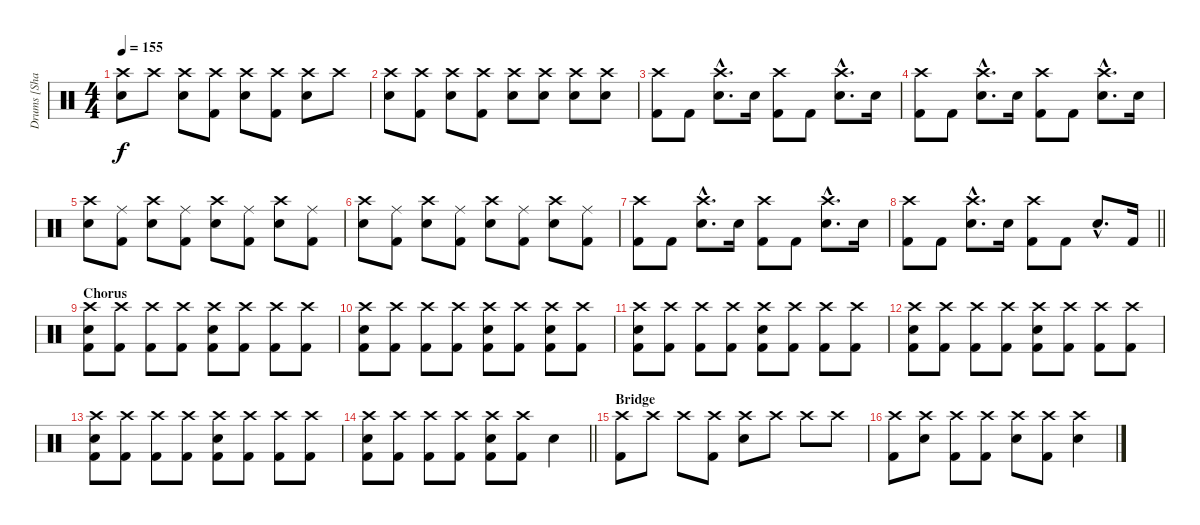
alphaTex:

\track ("Drums [Shannon Larkin]" "Drums [Sha") {instrument percussion}
\staff {score}
\articulation defaults
\ts (4 4)
\tempo 155
\clef neutral
\ks c
("Crash high (hit)" "Electric Snare (hit)").8{dy f} "Crash high (hit)".8 ("Crash high (hit)" "Electric Snare (hit)").8 ("Crash high (hit)" "Kick (hit) 2").8 ("Crash high (hit)" "Electric Snare (hit)").8 ("Crash high (hit)" "Kick (hit) 2").8 ("Crash high (hit)" "Electric Snare (hit)").8 "Crash high (hit)".8 |
("Crash high (hit)" "Electric Snare (hit)").8 ("Crash high (hit)" "Kick (hit) 2").8 ("Crash high (hit)" "Electric Snare (hit)").8 ("Crash high (hit)" "Kick (hit) 2").8 ("Crash high (hit)" "Electric Snare (hit)").8 ("Crash high (hit)" "Electric Snare (hit)").8 ("Crash high (hit)" "Electric Snare (hit)").8 ("Crash high (hit)" "Electric Snare (hit)").8 |
("Crash high (hit)" "Kick (hit) 2").8 "Kick (hit) 2".8 ("Crash high (hit)"{hac} "Electric Snare (hit)"{hac}).8{d} "Electric Snare (hit)".16 ("Crash high (hit)" "Kick (hit) 2").8 "Kick (hit) 2".8 ("Crash high (hit)"{hac} "Electric Snare (hit)"{hac}).8{d} "Electric Snare (hit)".16 |
("Crash high (hit)" "Kick (hit) 2").8 "Kick (hit) 2".8 ("Crash high (hit)"{hac} "Electric Snare (hit)"{hac}).8{d} "Electric Snare (hit)".16 ("Crash high (hit)" "Kick (hit) 2").8 "Kick (hit) 2".8 ("Crash high (hit)"{hac} "Electric Snare (hit)"{hac}).8{d} "Electric Snare (hit)".16 |
("Crash high (hit)" "Electric Snare (hit)").8 ("Ride (middle)" "Kick (hit) 2").8 ("Crash high (hit)" "Electric Snare (hit)").8 ("Ride (middle)" "Kick (hit) 2").8 ("Crash high (hit)" "Electric Snare (hit)").8 ("Ride (middle)" "Kick (hit) 2").8 ("Crash high (hit)" "Electric Snare (hit)").8 ("Ride (middle)" "Kick (hit) 2").8 |
("Crash high (hit)" "Electric Snare (hit)").8 ("Ride (middle)" "Kick (hit) 2").8 ("Crash high (hit)" "Electric Snare (hit)").8 ("Ride (middle)" "Kick (hit) 2").8 ("Crash high (hit)" "Electric Snare (hit)").8 ("Ride (middle)" "Kick (hit) 2").8 ("Crash high (hit)" "Electric Snare (hit)").8 ("Ride (middle)" "Kick (hit) 2").8 |
("Crash high (hit)" "Kick (hit) 2").8 "Kick (hit) 2".8 ("Crash high (hit)"{hac} "Electric Snare (hit)"{hac}).8{d} "Electric Snare (hit)".16 ("Crash high (hit)" "Kick (hit) 2").8 "Kick (hit) 2".8 ("Crash high (hit)"{hac} "Electric Snare (hit)"{hac}).8{d} "Electric Snare (hit)".16 |
\barLineRight lightlight
("Crash high (hit)" "Kick (hit) 2").8 "Kick (hit) 2".8 ("Crash high (hit)"{hac} "Electric Snare (hit)"{hac}).8{d} "Electric Snare (hit)".16 ("Crash high (hit)" "Kick (hit) 2").8 "Kick (hit) 2".8 "Electric Snare (hit)"{hac}.8{d} "Kick (hit) 2".16 |
\section ("" "Chorus")
("Crash high (hit)" "Electric Snare (hit)" "Kick (hit) 2").8 ("Crash high (hit)" "Kick (hit) 2").8 ("Crash high (hit)" "Kick (hit) 2").8 ("Crash high (hit)" "Kick (hit) 2").8 ("Crash high (hit)" "Electric Snare (hit)" "Kick (hit) 2").8 ("Crash high (hit)" "Kick (hit) 2").8 ("Crash high (hit)" "Kick (hit) 2").8 ("Crash high (hit)" "Kick (hit) 2").8 |
("Crash high (hit)" "Electric Snare (hit)" "Kick (hit) 2").8 ("Crash high (hit)" "Kick (hit) 2").8 ("Crash high (hit)" "Kick (hit) 2").8 ("Crash high (hit)" "Kick (hit) 2").8 ("Crash high (hit)" "Electric Snare (hit)" "Kick (hit) 2").8 ("Crash high (hit)" "Kick (hit) 2").8 ("Crash high (hit)" "Electric Snare (hit)" "Kick (hit) 2").8 ("Crash high (hit)" "Kick (hit) 2").8 |
("Crash high (hit)" "Electric Snare (hit)" "Kick (hit) 2").8 ("Crash high (hit)" "Kick (hit) 2").8 ("Crash high (hit)" "Kick (hit) 2").8 ("Crash high (hit)" "Kick (hit) 2").8 ("Crash high (hit)" "Electric Snare (hit)" "Kick (hit) 2").8 ("Crash high (hit)" "Kick (hit) 2").8 ("Crash high (hit)" "Kick (hit) 2").8 ("Crash high (hit)" "Kick (hit) 2").8 |
("Crash high (hit)" "Electric Snare (hit)" "Kick (hit) 2").8 ("Crash high (hit)" "Kick (hit) 2").8 ("Crash high (hit)" "Kick (hit) 2").8 ("Crash high (hit)" "Kick (hit) 2").8 ("Crash high (hit)" "Electric Snare (hit)" "Kick (hit) 2").8 ("Crash high (hit)" "Kick (hit) 2").8 ("Crash high (hit)" "Kick (hit) 2").8 ("Crash high (hit)" "Kick (hit) 2").8 |
("Crash high (hit)" "Electric Snare (hit)" "Kick (hit) 2").8 ("Crash high (hit)" "Kick (hit) 2").8 ("Crash high (hit)" "Kick (hit) 2").8 ("Crash high (hit)" "Kick (hit) 2").8 ("Crash high (hit)" "Electric Snare (hit)" "Kick (hit) 2").8 ("Crash high (hit)" "Kick (hit) 2").8 ("Crash high (hit)" "Kick (hit) 2").8 ("Crash high (hit)" "Kick (hit) 2").8 |
\barLineRight lightlight
("Crash high (hit)" "Electric Snare (hit)" "Kick (hit) 2").8 ("Crash high (hit)" "Kick (hit) 2").8 ("Crash high (hit)" "Kick (hit) 2").8 ("Crash high (hit)" "Kick (hit) 2").8 ("Crash high (hit)" "Electric Snare (hit)" "Kick (hit) 2").8 ("Crash high (hit)" "Kick (hit) 2").8 "Electric Snare (hit)".4 |
\section ("" "Bridge")
("Crash high (hit)" "Kick (hit) 2").8 "Crash high (hit)".8 "Crash high (hit)".8 ("Crash high (hit)" "Kick (hit) 2").8 ("Crash high (hit)" "Electric Snare (hit)").8 "Crash high (hit)".8 "Crash high (hit)".8 "Crash high (hit)".8 |
("Crash high (hit)" "Kick (hit) 2").8 ("Crash high (hit)" "Electric Snare (hit)").8 ("Crash high (hit)" "Kick (hit) 2").8 ("Crash high (hit)" "Kick (hit) 2").8 ("Crash high (hit)" "Electric Snare (hit)").8 ("Crash high (hit)" "Kick (hit) 2").8 ("Crash high (hit)" "Electric Snare (hit)").4
